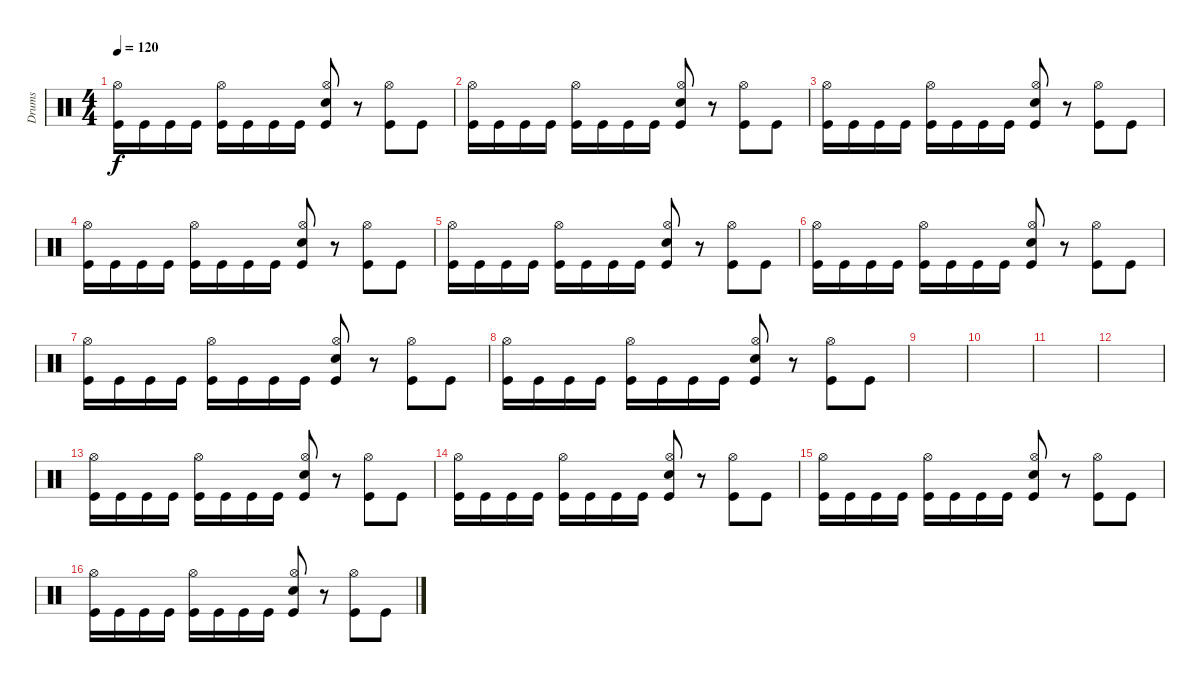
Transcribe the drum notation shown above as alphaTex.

\track ("Drums" "Drums") {instrument percussion}
\staff {score}
\articulation defaults
\ts (4 4)
\tempo 120
\clef neutral
\ks c
("Kick (hit)" "Hi-Hat (open)").16{dy f} "Kick (hit)".16 "Kick (hit)".16 "Kick (hit)".16 ("Kick (hit)" "Hi-Hat (open)").16 "Kick (hit)".16 "Kick (hit)".16 "Kick (hit)".16 ("Kick (hit)" "Hi-Hat (open)" "Snare (hit) 2").8 r.8 ("Kick (hit)" "Hi-Hat (open)").8 "Kick (hit)".8 |
("Kick (hit)" "Hi-Hat (open)").16 "Kick (hit)".16 "Kick (hit)".16 "Kick (hit)".16 ("Kick (hit)" "Hi-Hat (open)").16 "Kick (hit)".16 "Kick (hit)".16 "Kick (hit)".16 ("Kick (hit)" "Hi-Hat (open)" "Snare (hit) 2").8 r.8 ("Kick (hit)" "Hi-Hat (open)").8 "Kick (hit)".8 |
("Kick (hit)" "Hi-Hat (open)").16 "Kick (hit)".16 "Kick (hit)".16 "Kick (hit)".16 ("Kick (hit)" "Hi-Hat (open)").16 "Kick (hit)".16 "Kick (hit)".16 "Kick (hit)".16 ("Kick (hit)" "Hi-Hat (open)" "Snare (hit) 2").8 r.8 ("Kick (hit)" "Hi-Hat (open)").8 "Kick (hit)".8 |
("Kick (hit)" "Hi-Hat (open)").16 "Kick (hit)".16 "Kick (hit)".16 "Kick (hit)".16 ("Kick (hit)" "Hi-Hat (open)").16 "Kick (hit)".16 "Kick (hit)".16 "Kick (hit)".16 ("Kick (hit)" "Hi-Hat (open)" "Snare (hit) 2").8 r.8 ("Kick (hit)" "Hi-Hat (open)").8 "Kick (hit)".8 |
("Kick (hit)" "Hi-Hat (open)").16 "Kick (hit)".16 "Kick (hit)".16 "Kick (hit)".16 ("Kick (hit)" "Hi-Hat (open)").16 "Kick (hit)".16 "Kick (hit)".16 "Kick (hit)".16 ("Kick (hit)" "Hi-Hat (open)" "Snare (hit) 2").8 r.8 ("Kick (hit)" "Hi-Hat (open)").8 "Kick (hit)".8 |
("Kick (hit)" "Hi-Hat (open)").16 "Kick (hit)".16 "Kick (hit)".16 "Kick (hit)".16 ("Kick (hit)" "Hi-Hat (open)").16 "Kick (hit)".16 "Kick (hit)".16 "Kick (hit)".16 ("Kick (hit)" "Hi-Hat (open)" "Snare (hit) 2").8 r.8 ("Kick (hit)" "Hi-Hat (open)").8 "Kick (hit)".8 |
("Kick (hit)" "Hi-Hat (open)").16 "Kick (hit)".16 "Kick (hit)".16 "Kick (hit)".16 ("Kick (hit)" "Hi-Hat (open)").16 "Kick (hit)".16 "Kick (hit)".16 "Kick (hit)".16 ("Kick (hit)" "Hi-Hat (open)" "Snare (hit) 2").8 r.8 ("Kick (hit)" "Hi-Hat (open)").8 "Kick (hit)".8 |
("Kick (hit)" "Hi-Hat (open)").16 "Kick (hit)".16 "Kick (hit)".16 "Kick (hit)".16 ("Kick (hit)" "Hi-Hat (open)").16 "Kick (hit)".16 "Kick (hit)".16 "Kick (hit)".16 ("Kick (hit)" "Hi-Hat (open)" "Snare (hit) 2").8 r.8 ("Kick (hit)" "Hi-Hat (open)").8 "Kick (hit)".8 |
|
|
|
|
("Kick (hit)" "Hi-Hat (open)").16 "Kick (hit)".16 "Kick (hit)".16 "Kick (hit)".16 ("Kick (hit)" "Hi-Hat (open)").16 "Kick (hit)".16 "Kick (hit)".16 "Kick (hit)".16 ("Kick (hit)" "Hi-Hat (open)" "Snare (hit) 2").8 r.8 ("Kick (hit)" "Hi-Hat (open)").8 "Kick (hit)".8 |
("Kick (hit)" "Hi-Hat (open)").16 "Kick (hit)".16 "Kick (hit)".16 "Kick (hit)".16 ("Kick (hit)" "Hi-Hat (open)").16 "Kick (hit)".16 "Kick (hit)".16 "Kick (hit)".16 ("Kick (hit)" "Hi-Hat (open)" "Snare (hit) 2").8 r.8 ("Kick (hit)" "Hi-Hat (open)").8 "Kick (hit)".8 |
("Kick (hit)" "Hi-Hat (open)").16 "Kick (hit)".16 "Kick (hit)".16 "Kick (hit)".16 ("Kick (hit)" "Hi-Hat (open)").16 "Kick (hit)".16 "Kick (hit)".16 "Kick (hit)".16 ("Kick (hit)" "Hi-Hat (open)" "Snare (hit) 2").8 r.8 ("Kick (hit)" "Hi-Hat (open)").8 "Kick (hit)".8 |
("Kick (hit)" "Hi-Hat (open)").16 "Kick (hit)".16 "Kick (hit)".16 "Kick (hit)".16 ("Kick (hit)" "Hi-Hat (open)").16 "Kick (hit)".16 "Kick (hit)".16 "Kick (hit)".16 ("Kick (hit)" "Hi-Hat (open)" "Snare (hit) 2").8 r.8 ("Kick (hit)" "Hi-Hat (open)").8 "Kick (hit)".8
